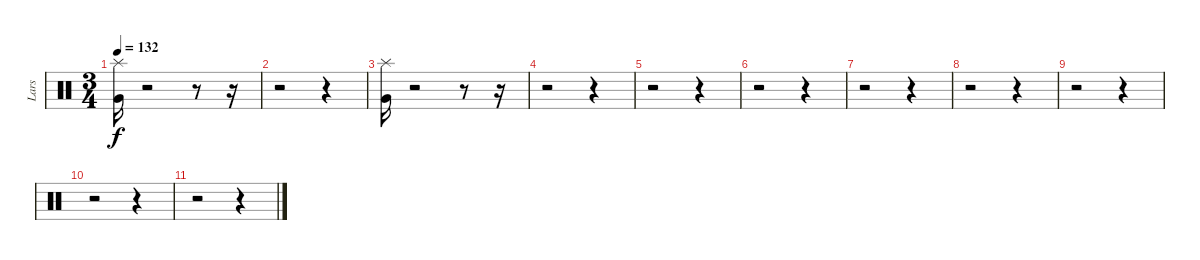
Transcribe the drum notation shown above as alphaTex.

\track ("Lars" "Lars") {instrument percussion}
\staff {score}
\articulation defaults
\ts (3 4)
\tempo 132
\clef neutral
\ks c
("Very Low Tom (hit)" "Splash (hit)").16{dy f} r.2 r.8 r.16 |
r.2 r.4 |
("Very Low Tom (hit)" "Splash (hit)").16 r.2 r.8 r.16 |
r.2 r.4 |
r.2 r.4 |
r.2 r.4 |
r.2 r.4 |
r.2 r.4 |
r.2 r.4 |
r.2 r.4 |
r.2 r.4
